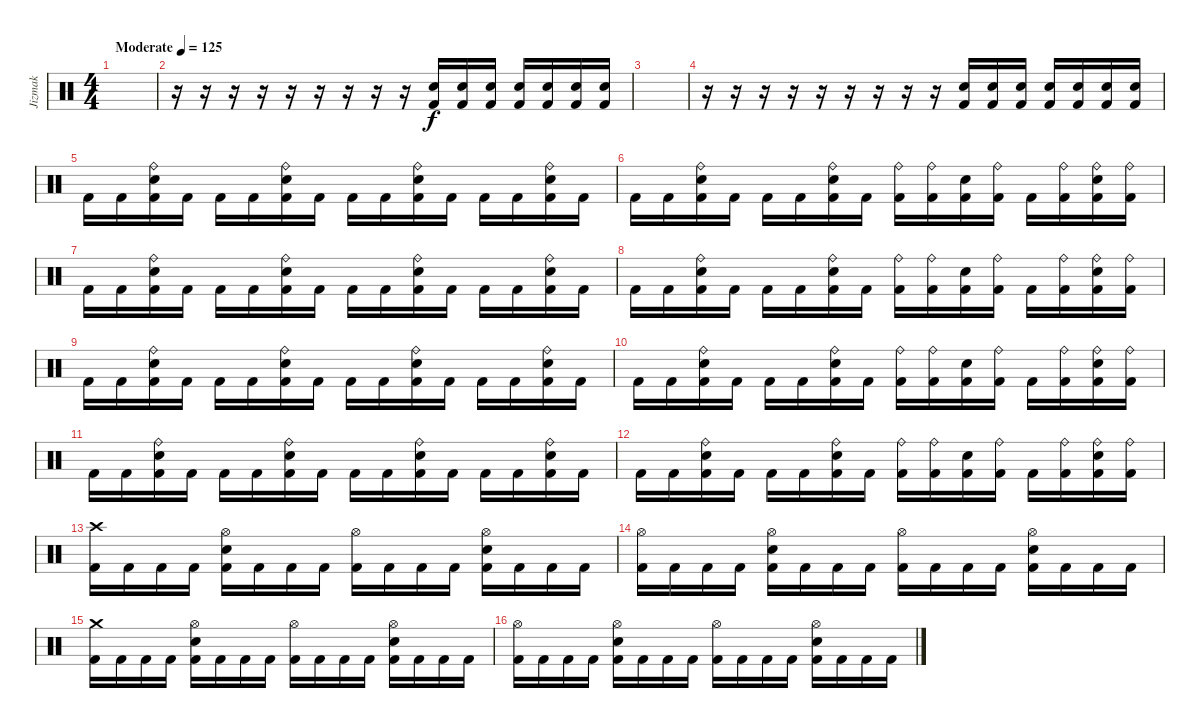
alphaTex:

\track ("Jizmak" "Jizmak") {instrument percussion}
\staff {score}
\articulation defaults
\ts (4 4)
\tempo (125 "Moderate")
\clef neutral
\ks c
|
r.16 r.16 r.16 r.16 r.16 r.16 r.16 r.16 r.16 ("Snare (hit) 2" "Kick (hit) 2").16 ("Snare (hit) 2" "Kick (hit) 2").16 ("Snare (hit) 2" "Kick (hit) 2").16 ("Snare (hit) 2" "Kick (hit) 2").16 ("Snare (hit) 2" "Kick (hit) 2").16 ("Snare (hit) 2" "Kick (hit) 2").16 ("Snare (hit) 2" "Kick (hit) 2").16 |
|
r.16 r.16 r.16 r.16 r.16 r.16 r.16 r.16 r.16 ("Snare (hit) 2" "Kick (hit) 2").16 ("Snare (hit) 2" "Kick (hit) 2").16 ("Snare (hit) 2" "Kick (hit) 2").16 ("Snare (hit) 2" "Kick (hit) 2").16 ("Snare (hit) 2" "Kick (hit) 2").16 ("Snare (hit) 2" "Kick (hit) 2").16 ("Snare (hit) 2" "Kick (hit) 2").16 |
"Kick (hit) 2".16 "Kick (hit) 2".16 ("Ride (bell)" "Snare (hit) 2" "Kick (hit) 2").16 "Kick (hit) 2".16 "Kick (hit) 2".16 "Kick (hit) 2".16 ("Ride (bell)" "Snare (hit) 2" "Kick (hit) 2").16 "Kick (hit) 2".16 "Kick (hit) 2".16 "Kick (hit) 2".16 ("Ride (bell)" "Snare (hit) 2" "Kick (hit) 2").16 "Kick (hit) 2".16 "Kick (hit) 2".16 "Kick (hit) 2".16 ("Ride (bell)" "Snare (hit) 2" "Kick (hit) 2").16 "Kick (hit) 2".16 |
"Kick (hit) 2".16 "Kick (hit) 2".16 ("Ride (bell)" "Snare (hit) 2" "Kick (hit) 2").16 "Kick (hit) 2".16 "Kick (hit) 2".16 "Kick (hit) 2".16 ("Ride (bell)" "Snare (hit) 2" "Kick (hit) 2").16 "Kick (hit) 2".16 ("Ride (bell)" "Kick (hit) 2").16 ("Ride (bell)" "Kick (hit) 2").16 ("Snare (hit) 2" "Kick (hit) 2").16 ("Ride (bell)" "Kick (hit) 2").16 "Kick (hit) 2".16 ("Ride (bell)" "Kick (hit) 2").16 ("Ride (bell)" "Snare (hit) 2" "Kick (hit) 2").16 ("Ride (bell)" "Kick (hit) 2").16 |
"Kick (hit) 2".16 "Kick (hit) 2".16 ("Ride (bell)" "Snare (hit) 2" "Kick (hit) 2").16 "Kick (hit) 2".16 "Kick (hit) 2".16 "Kick (hit) 2".16 ("Ride (bell)" "Snare (hit) 2" "Kick (hit) 2").16 "Kick (hit) 2".16 "Kick (hit) 2".16 "Kick (hit) 2".16 ("Ride (bell)" "Snare (hit) 2" "Kick (hit) 2").16 "Kick (hit) 2".16 "Kick (hit) 2".16 "Kick (hit) 2".16 ("Ride (bell)" "Snare (hit) 2" "Kick (hit) 2").16 "Kick (hit) 2".16 |
"Kick (hit) 2".16 "Kick (hit) 2".16 ("Ride (bell)" "Snare (hit) 2" "Kick (hit) 2").16 "Kick (hit) 2".16 "Kick (hit) 2".16 "Kick (hit) 2".16 ("Ride (bell)" "Snare (hit) 2" "Kick (hit) 2").16 "Kick (hit) 2".16 ("Ride (bell)" "Kick (hit) 2").16 ("Ride (bell)" "Kick (hit) 2").16 ("Snare (hit) 2" "Kick (hit) 2").16 ("Ride (bell)" "Kick (hit) 2").16 "Kick (hit) 2".16 ("Ride (bell)" "Kick (hit) 2").16 ("Ride (bell)" "Snare (hit) 2" "Kick (hit) 2").16 ("Ride (bell)" "Kick (hit) 2").16 |
"Kick (hit) 2".16 "Kick (hit) 2".16 ("Ride (bell)" "Snare (hit) 2" "Kick (hit) 2").16 "Kick (hit) 2".16 "Kick (hit) 2".16 "Kick (hit) 2".16 ("Ride (bell)" "Snare (hit) 2" "Kick (hit) 2").16 "Kick (hit) 2".16 "Kick (hit) 2".16 "Kick (hit) 2".16 ("Ride (bell)" "Snare (hit) 2" "Kick (hit) 2").16 "Kick (hit) 2".16 "Kick (hit) 2".16 "Kick (hit) 2".16 ("Ride (bell)" "Snare (hit) 2" "Kick (hit) 2").16 "Kick (hit) 2".16 |
"Kick (hit) 2".16 "Kick (hit) 2".16 ("Ride (bell)" "Snare (hit) 2" "Kick (hit) 2").16 "Kick (hit) 2".16 "Kick (hit) 2".16 "Kick (hit) 2".16 ("Ride (bell)" "Snare (hit) 2" "Kick (hit) 2").16 "Kick (hit) 2".16 ("Ride (bell)" "Kick (hit) 2").16 ("Ride (bell)" "Kick (hit) 2").16 ("Snare (hit) 2" "Kick (hit) 2").16 ("Ride (bell)" "Kick (hit) 2").16 "Kick (hit) 2".16 ("Ride (bell)" "Kick (hit) 2").16 ("Ride (bell)" "Snare (hit) 2" "Kick (hit) 2").16 ("Ride (bell)" "Kick (hit) 2").16 |
"Kick (hit) 2".16 "Kick (hit) 2".16 ("Ride (bell)" "Snare (hit) 2" "Kick (hit) 2").16 "Kick (hit) 2".16 "Kick (hit) 2".16 "Kick (hit) 2".16 ("Ride (bell)" "Snare (hit) 2" "Kick (hit) 2").16 "Kick (hit) 2".16 "Kick (hit) 2".16 "Kick (hit) 2".16 ("Ride (bell)" "Snare (hit) 2" "Kick (hit) 2").16 "Kick (hit) 2".16 "Kick (hit) 2".16 "Kick (hit) 2".16 ("Ride (bell)" "Snare (hit) 2" "Kick (hit) 2").16 "Kick (hit) 2".16 |
"Kick (hit) 2".16 "Kick (hit) 2".16 ("Ride (bell)" "Snare (hit) 2" "Kick (hit) 2").16 "Kick (hit) 2".16 "Kick (hit) 2".16 "Kick (hit) 2".16 ("Ride (bell)" "Snare (hit) 2" "Kick (hit) 2").16 "Kick (hit) 2".16 ("Ride (bell)" "Kick (hit) 2").16 ("Ride (bell)" "Kick (hit) 2").16 ("Snare (hit) 2" "Kick (hit) 2").16 ("Ride (bell)" "Kick (hit) 2").16 "Kick (hit) 2".16 ("Ride (bell)" "Kick (hit) 2").16 ("Ride (bell)" "Snare (hit) 2" "Kick (hit) 2").16 ("Ride (bell)" "Kick (hit) 2").16 |
("Crash high (hit)" "Kick (hit) 2").16 "Kick (hit) 2".16 "Kick (hit) 2".16 "Kick (hit) 2".16 ("Hi-Hat (open)" "Snare (hit) 2" "Kick (hit) 2").16 "Kick (hit) 2".16 "Kick (hit) 2".16 "Kick (hit) 2".16 ("Hi-Hat (open)" "Kick (hit) 2").16 "Kick (hit) 2".16 "Kick (hit) 2".16 "Kick (hit) 2".16 ("Hi-Hat (open)" "Snare (hit) 2" "Kick (hit) 2").16 "Kick (hit) 2".16 "Kick (hit) 2".16 "Kick (hit) 2".16 |
("Hi-Hat (open)" "Kick (hit) 2").16 "Kick (hit) 2".16 "Kick (hit) 2".16 "Kick (hit) 2".16 ("Hi-Hat (open)" "Snare (hit) 2" "Kick (hit) 2").16 "Kick (hit) 2".16 "Kick (hit) 2".16 "Kick (hit) 2".16 ("Hi-Hat (open)" "Kick (hit) 2").16 "Kick (hit) 2".16 "Kick (hit) 2".16 "Kick (hit) 2".16 ("Hi-Hat (open)" "Snare (hit) 2" "Kick (hit) 2").16 "Kick (hit) 2".16 "Kick (hit) 2".16 "Kick (hit) 2".16 |
("Crash medium (hit)" "Kick (hit) 2").16 "Kick (hit) 2".16 "Kick (hit) 2".16 "Kick (hit) 2".16 ("Hi-Hat (open)" "Snare (hit) 2" "Kick (hit) 2").16 "Kick (hit) 2".16 "Kick (hit) 2".16 "Kick (hit) 2".16 ("Hi-Hat (open)" "Kick (hit) 2").16 "Kick (hit) 2".16 "Kick (hit) 2".16 "Kick (hit) 2".16 ("Hi-Hat (open)" "Snare (hit) 2" "Kick (hit) 2").16 "Kick (hit) 2".16 "Kick (hit) 2".16 "Kick (hit) 2".16 |
("Hi-Hat (open)" "Kick (hit) 2").16 "Kick (hit) 2".16 "Kick (hit) 2".16 "Kick (hit) 2".16 ("Hi-Hat (open)" "Snare (hit) 2" "Kick (hit) 2").16 "Kick (hit) 2".16 "Kick (hit) 2".16 "Kick (hit) 2".16 ("Hi-Hat (open)" "Kick (hit) 2").16 "Kick (hit) 2".16 "Kick (hit) 2".16 "Kick (hit) 2".16 ("Hi-Hat (open)" "Snare (hit) 2" "Kick (hit) 2").16 "Kick (hit) 2".16 "Kick (hit) 2".16 "Kick (hit) 2".16
